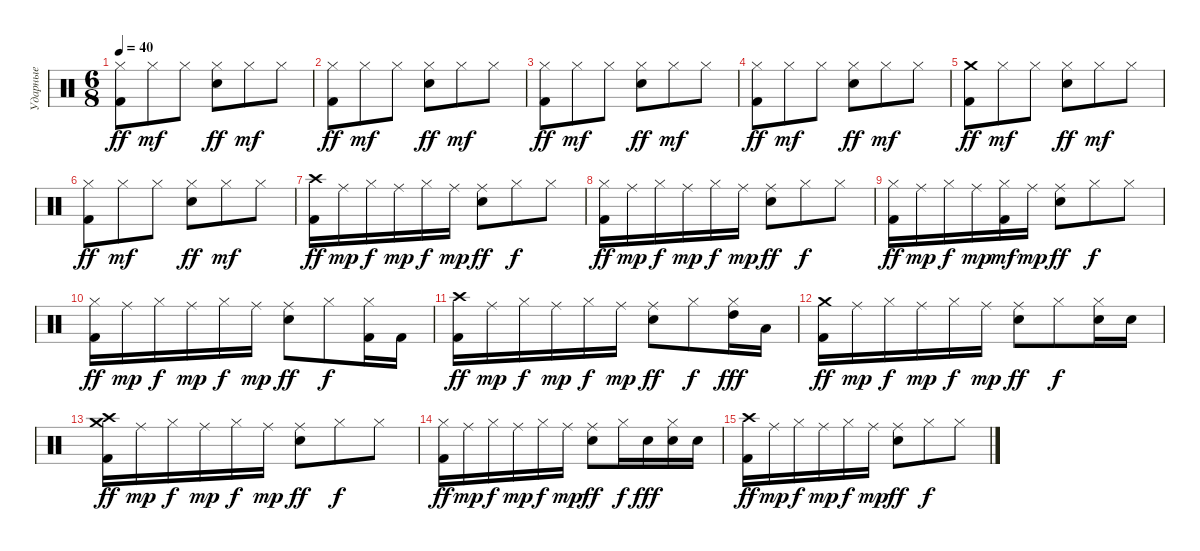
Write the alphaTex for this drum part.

\track ("Ударные" "Ударные") {instrument percussion}
\staff {score}
\articulation defaults
\ts (6 8)
\tempo 40
\clef neutral
\ks c
("Hi-Hat (closed)" "Kick (hit) 2").8{dy ff} "Hi-Hat (closed)".8{dy mf} "Hi-Hat (closed)".8 ("Hi-Hat (closed)" "Snare (hit) 2").8{dy ff} "Hi-Hat (closed)".8{dy mf} "Hi-Hat (closed)".8 |
("Hi-Hat (closed)" "Kick (hit) 2").8{dy ff} "Hi-Hat (closed)".8{dy mf} "Hi-Hat (closed)".8 ("Hi-Hat (closed)" "Snare (hit) 2").8{dy ff} "Hi-Hat (closed)".8{dy mf} "Hi-Hat (closed)".8 |
("Hi-Hat (closed)" "Kick (hit) 2").8{dy ff} "Hi-Hat (closed)".8{dy mf} "Hi-Hat (closed)".8 ("Hi-Hat (closed)" "Snare (hit) 2").8{dy ff} "Hi-Hat (closed)".8{dy mf} "Hi-Hat (closed)".8 |
("Hi-Hat (closed)" "Kick (hit) 2").8{dy ff} "Hi-Hat (closed)".8{dy mf} "Hi-Hat (closed)".8 ("Hi-Hat (closed)" "Snare (hit) 2").8{dy ff} "Hi-Hat (closed)".8{dy mf} "Hi-Hat (closed)".8 |
("Crash medium (hit)" "Kick (hit) 2").8{dy ff} "Hi-Hat (closed)".8{dy mf} "Hi-Hat (closed)".8 ("Hi-Hat (closed)" "Snare (hit) 2").8{dy ff} "Hi-Hat (closed)".8{dy mf} "Hi-Hat (closed)".8 |
("Hi-Hat (closed)" "Kick (hit) 2").8{dy ff} "Hi-Hat (closed)".8{dy mf} "Hi-Hat (closed)".8 ("Hi-Hat (closed)" "Snare (hit) 2").8{dy ff} "Hi-Hat (closed)".8{dy mf} "Hi-Hat (closed)".8 |
("Crash high (hit)" "Kick (hit) 2").16{dy ff} "Ride (middle)".16{dy mp} "Hi-Hat (closed)".16{dy f} "Ride (middle)".16{dy mp} "Hi-Hat (closed)".16{dy f} "Ride (middle)".16{dy mp} ("Ride (middle)" "Snare (hit) 2").8{dy ff} "Hi-Hat (closed)".8{dy f} "Hi-Hat (closed)".8 |
("Hi-Hat (closed)" "Kick (hit) 2").16{dy ff} "Ride (middle)".16{dy mp} "Hi-Hat (closed)".16{dy f} "Ride (middle)".16{dy mp} "Hi-Hat (closed)".16{dy f} "Ride (middle)".16{dy mp} ("Ride (middle)" "Snare (hit) 2").8{dy ff} "Hi-Hat (closed)".8{dy f} "Hi-Hat (closed)".8 |
("Hi-Hat (closed)" "Kick (hit) 2").16{dy ff} "Ride (middle)".16{dy mp} "Hi-Hat (closed)".16{dy f} "Ride (middle)".16{dy mp} ("Hi-Hat (closed)" "Kick (hit) 2").16{dy mf} "Ride (middle)".16{dy mp} ("Ride (middle)" "Snare (hit) 2").8{dy ff} "Hi-Hat (closed)".8{dy f} "Hi-Hat (closed)".8 |
("Hi-Hat (closed)" "Kick (hit) 2").16{dy ff} "Ride (middle)".16{dy mp} "Hi-Hat (closed)".16{dy f} "Ride (middle)".16{dy mp} "Hi-Hat (closed)".16{dy f} "Ride (middle)".16{dy mp} ("Ride (middle)" "Snare (hit) 2").8{dy ff} "Hi-Hat (closed)".8{dy f} ("Hi-Hat (closed)" "Kick (hit) 2").16 "Kick (hit) 2".16 |
("Crash high (hit)" "Kick (hit) 2").16{dy ff} "Ride (middle)".16{dy mp} "Hi-Hat (closed)".16{dy f} "Ride (middle)".16{dy mp} "Hi-Hat (closed)".16{dy f} "Ride (middle)".16{dy mp} ("Ride (middle)" "Snare (hit) 2").8{dy ff} "Hi-Hat (closed)".8{dy f} ("Hi-Hat (closed)" "High Tom (hit)").16{dy fff} "Low Tom (hit)".16 |
("Crash medium (hit)" "Kick (hit) 2").16{dy ff} "Ride (middle)".16{dy mp} "Hi-Hat (closed)".16{dy f} "Ride (middle)".16{dy mp} "Hi-Hat (closed)".16{dy f} "Ride (middle)".16{dy mp} ("Ride (middle)" "Snare (hit) 2").8{dy ff} "Hi-Hat (closed)".8{dy f} ("Hi-Hat (closed)" "Snare (hit) 2").16 "Snare (hit) 2".16 |
("Crash high (hit)" "Kick (hit) 2" "Crash medium (hit)").16{dy ff} "Ride (middle)".16{dy mp} "Hi-Hat (closed)".16{dy f} "Ride (middle)".16{dy mp} "Hi-Hat (closed)".16{dy f} "Ride (middle)".16{dy mp} ("Ride (middle)" "Snare (hit) 2").8{dy ff} "Hi-Hat (closed)".8{dy f} "Hi-Hat (closed)".8 |
("Hi-Hat (closed)" "Kick (hit) 2").16{dy ff} "Ride (middle)".16{dy mp} "Hi-Hat (closed)".16{dy f} "Ride (middle)".16{dy mp} "Hi-Hat (closed)".16{dy f} "Ride (middle)".16{dy mp} ("Ride (middle)" "Snare (hit) 2").8{dy ff} "Hi-Hat (closed)".16{dy f} "Snare (hit) 2".16{dy fff} ("Hi-Hat (closed)" "Snare (hit) 2").16 "Snare (hit) 2".16 |
("Crash high (hit)" "Kick (hit) 2").16{dy ff} "Ride (middle)".16{dy mp} "Hi-Hat (closed)".16{dy f} "Ride (middle)".16{dy mp} "Hi-Hat (closed)".16{dy f} "Ride (middle)".16{dy mp} ("Ride (middle)" "Snare (hit) 2").8{dy ff} "Hi-Hat (closed)".8{dy f} "Hi-Hat (closed)".8
